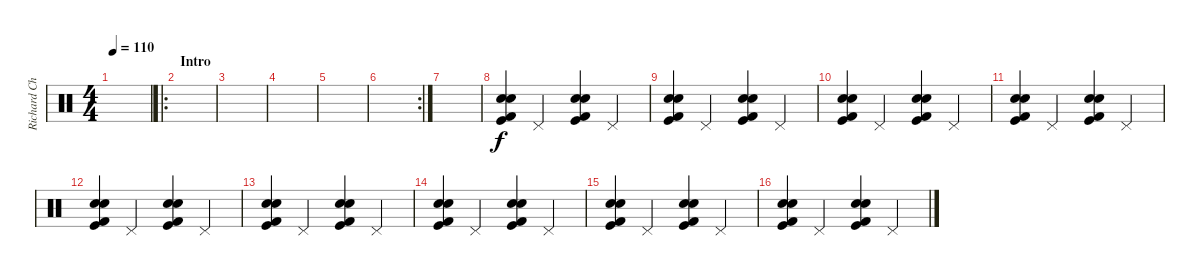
\track ("Richard Christy" "Richard Ch") {instrument percussion}
\staff {score}
\articulation defaults
\ts (4 4)
\tempo 110
\clef neutral
\ks c
|
\ro
\section ("" "Intro")
|
|
|
|
\rc 2
|
|
("Snare (hit) 2" "Electric Snare (hit)" "Kick (hit) 2" "Kick (hit)").4 "Pedal Hi-Hat (hit)".4 ("Snare (hit) 2" "Electric Snare (hit)" "Kick (hit) 2" "Kick (hit)").4 "Pedal Hi-Hat (hit)".4 |
("Snare (hit) 2" "Electric Snare (hit)" "Kick (hit) 2" "Kick (hit)").4 "Pedal Hi-Hat (hit)".4 ("Snare (hit) 2" "Electric Snare (hit)" "Kick (hit) 2" "Kick (hit)").4 "Pedal Hi-Hat (hit)".4 |
("Snare (hit) 2" "Electric Snare (hit)" "Kick (hit) 2" "Kick (hit)").4 "Pedal Hi-Hat (hit)".4 ("Snare (hit) 2" "Electric Snare (hit)" "Kick (hit) 2" "Kick (hit)").4 "Pedal Hi-Hat (hit)".4 |
("Snare (hit) 2" "Electric Snare (hit)" "Kick (hit) 2" "Kick (hit)").4 "Pedal Hi-Hat (hit)".4 ("Snare (hit) 2" "Electric Snare (hit)" "Kick (hit) 2" "Kick (hit)").4 "Pedal Hi-Hat (hit)".4 |
("Snare (hit) 2" "Electric Snare (hit)" "Kick (hit) 2" "Kick (hit)").4 "Pedal Hi-Hat (hit)".4 ("Snare (hit) 2" "Electric Snare (hit)" "Kick (hit) 2" "Kick (hit)").4 "Pedal Hi-Hat (hit)".4 |
("Snare (hit) 2" "Electric Snare (hit)" "Kick (hit) 2" "Kick (hit)").4 "Pedal Hi-Hat (hit)".4 ("Snare (hit) 2" "Electric Snare (hit)" "Kick (hit) 2" "Kick (hit)").4 "Pedal Hi-Hat (hit)".4 |
("Snare (hit) 2" "Electric Snare (hit)" "Kick (hit) 2" "Kick (hit)").4 "Pedal Hi-Hat (hit)".4 ("Snare (hit) 2" "Electric Snare (hit)" "Kick (hit) 2" "Kick (hit)").4 "Pedal Hi-Hat (hit)".4 |
("Snare (hit) 2" "Electric Snare (hit)" "Kick (hit) 2" "Kick (hit)").4 "Pedal Hi-Hat (hit)".4 ("Snare (hit) 2" "Electric Snare (hit)" "Kick (hit) 2" "Kick (hit)").4 "Pedal Hi-Hat (hit)".4 |
("Snare (hit) 2" "Electric Snare (hit)" "Kick (hit) 2" "Kick (hit)").4 "Pedal Hi-Hat (hit)".4 ("Snare (hit) 2" "Electric Snare (hit)" "Kick (hit) 2" "Kick (hit)").4 "Pedal Hi-Hat (hit)".4
